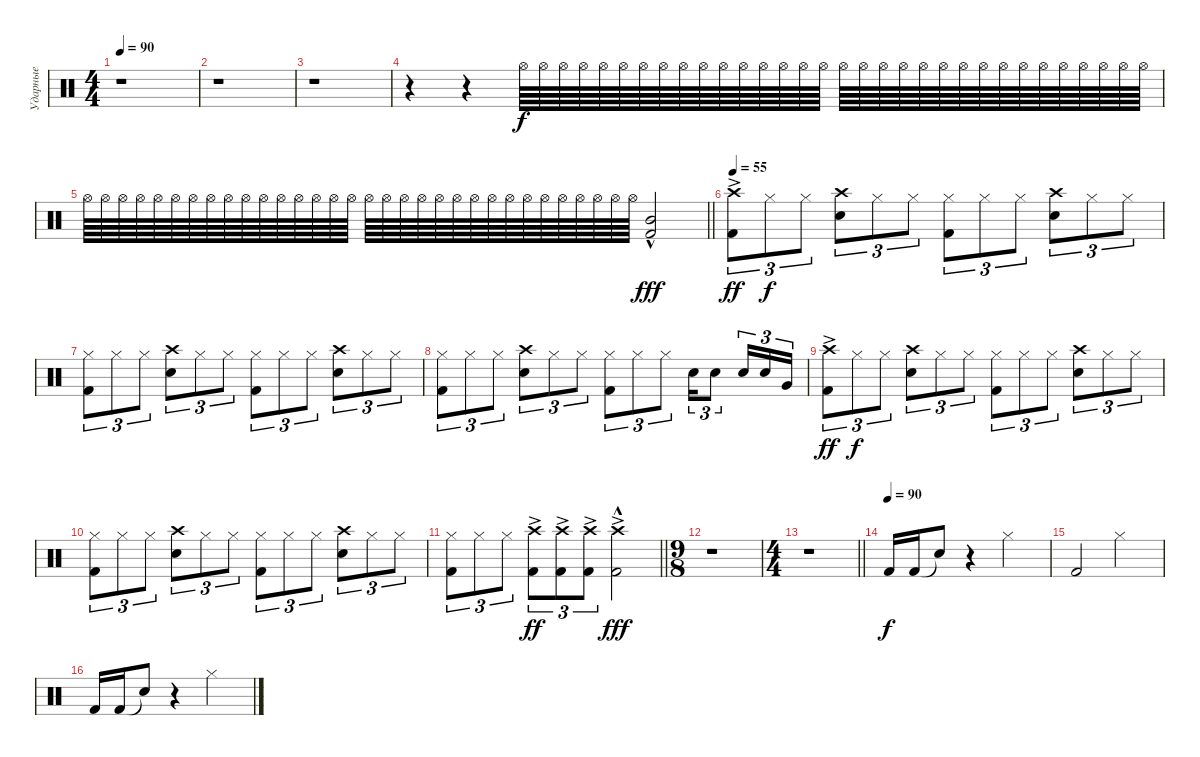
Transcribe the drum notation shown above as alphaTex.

\track ("Ударные" "Ударные") {instrument percussion}
\staff {score}
\articulation defaults
\ts (4 4)
\tempo 90
\clef neutral
\ks c
r.1{dy f} |
r.1 |
r.1 |
r.4{volume 0} r.4{volume 13} "Hi-Hat (open)".64 "Hi-Hat (open)".64 "Hi-Hat (open)".64 "Hi-Hat (open)".64 "Hi-Hat (open)".64 "Hi-Hat (open)".64 "Hi-Hat (open)".64 "Hi-Hat (open)".64 "Hi-Hat (open)".64 "Hi-Hat (open)".64 "Hi-Hat (open)".64 "Hi-Hat (open)".64 "Hi-Hat (open)".64 "Hi-Hat (open)".64 "Hi-Hat (open)".64 "Hi-Hat (open)".64 "Hi-Hat (open)".64 "Hi-Hat (open)".64 "Hi-Hat (open)".64 "Hi-Hat (open)".64 "Hi-Hat (open)".64 "Hi-Hat (open)".64 "Hi-Hat (open)".64 "Hi-Hat (open)".64 "Hi-Hat (open)".64 "Hi-Hat (open)".64 "Hi-Hat (open)".64 "Hi-Hat (open)".64 "Hi-Hat (open)".64 "Hi-Hat (open)".64 "Hi-Hat (open)".64 "Hi-Hat (open)".64 |
\barLineRight lightlight "Hi-Hat (open)".64 "Hi-Hat (open)".64 "Hi-Hat (open)".64 "Hi-Hat (open)".64 "Hi-Hat (open)".64 "Hi-Hat (open)".64 "Hi-Hat (open)".64 "Hi-Hat (open)".64 "Hi-Hat (open)".64 "Hi-Hat (open)".64 "Hi-Hat (open)".64 "Hi-Hat (open)".64 "Hi-Hat (open)".64 "Hi-Hat (open)".64 "Hi-Hat (open)".64 "Hi-Hat (open)".64 "Hi-Hat (open)".64 "Hi-Hat (open)".64 "Hi-Hat (open)".64 "Hi-Hat (open)".64 "Hi-Hat (open)".64 "Hi-Hat (open)".64 "Hi-Hat (open)".64 "Hi-Hat (open)".64 "Hi-Hat (open)".64 "Hi-Hat (open)".64 "Hi-Hat (open)".64 "Hi-Hat (open)".64 "Hi-Hat (open)".64 "Hi-Hat (open)".64 "Hi-Hat (open)".64 "Hi-Hat (open)".64
("Kick (hit) 2"{hac} "Mid Tom (hit)"{hac}).2{dy fff} |
\tempo 55
("Kick (hit) 2" "Crash high (hit)"{ac}).8{tu (3 2) dy ff} "Hi-Hat (closed)".8{tu (3 2) dy f} "Hi-Hat (closed)".8{tu (3 2)} ("Snare (hit) 2" "Crash high (hit)").8{tu (3 2)} "Hi-Hat (closed)".8{tu (3 2)} "Hi-Hat (closed)".8{tu (3 2)} ("Kick (hit) 2" "Hi-Hat (closed)").8{tu (3 2)} "Hi-Hat (closed)".8{tu (3 2)} "Hi-Hat (closed)".8{tu (3 2)} ("Snare (hit) 2" "Crash high (hit)").8{tu (3 2)} "Hi-Hat (closed)".8{tu (3 2)} "Hi-Hat (closed)".8{tu (3 2)} |
("Kick (hit) 2" "Hi-Hat (closed)").8{tu (3 2)} "Hi-Hat (closed)".8{tu (3 2)} "Hi-Hat (closed)".8{tu (3 2)} ("Snare (hit) 2" "Crash high (hit)").8{tu (3 2)} "Hi-Hat (closed)".8{tu (3 2)} "Hi-Hat (closed)".8{tu (3 2)} ("Kick (hit) 2" "Hi-Hat (closed)").8{tu (3 2)} "Hi-Hat (closed)".8{tu (3 2)} "Hi-Hat (closed)".8{tu (3 2)} ("Snare (hit) 2" "Crash high (hit)").8{tu (3 2)} "Hi-Hat (closed)".8{tu (3 2)} "Hi-Hat (closed)".8{tu (3 2)} |
("Kick (hit) 2" "Hi-Hat (closed)").8{tu (3 2)} "Hi-Hat (closed)".8{tu (3 2)} "Hi-Hat (closed)".8{tu (3 2)} ("Snare (hit) 2" "Crash high (hit)").8{tu (3 2)} "Hi-Hat (closed)".8{tu (3 2)} "Hi-Hat (closed)".8{tu (3 2)} ("Kick (hit) 2" "Hi-Hat (closed)").8{tu (3 2)} "Hi-Hat (closed)".8{tu (3 2)} "Hi-Hat (closed)".8{tu (3 2)} "Snare (hit) 2".16{tu (3 2)} "Snare (hit) 2".8{tu (3 2)} "Snare (hit) 2".16{tu (3 2)} "Snare (hit) 2".16{tu (3 2)} "Very Low Tom (hit)".16{tu (3 2)} |
("Kick (hit) 2" "Crash high (hit)"{ac}).8{tu (3 2) dy ff} "Hi-Hat (closed)".8{tu (3 2) dy f} "Hi-Hat (closed)".8{tu (3 2)} ("Snare (hit) 2" "Crash high (hit)").8{tu (3 2)} "Hi-Hat (closed)".8{tu (3 2)} "Hi-Hat (closed)".8{tu (3 2)} ("Kick (hit) 2" "Hi-Hat (closed)").8{tu (3 2)} "Hi-Hat (closed)".8{tu (3 2)} "Hi-Hat (closed)".8{tu (3 2)} ("Snare (hit) 2" "Crash high (hit)").8{tu (3 2)} "Hi-Hat (closed)".8{tu (3 2)} "Hi-Hat (closed)".8{tu (3 2)} |
("Kick (hit) 2" "Hi-Hat (closed)").8{tu (3 2)} "Hi-Hat (closed)".8{tu (3 2)} "Hi-Hat (closed)".8{tu (3 2)} ("Snare (hit) 2" "Crash high (hit)").8{tu (3 2)} "Hi-Hat (closed)".8{tu (3 2)} "Hi-Hat (closed)".8{tu (3 2)} ("Kick (hit) 2" "Hi-Hat (closed)").8{tu (3 2)} "Hi-Hat (closed)".8{tu (3 2)} "Hi-Hat (closed)".8{tu (3 2)} ("Snare (hit) 2" "Crash high (hit)").8{tu (3 2)} "Hi-Hat (closed)".8{tu (3 2)} "Hi-Hat (closed)".8{tu (3 2)} |
\barLineRight lightlight
("Kick (hit) 2" "Hi-Hat (closed)").8{tu (3 2)} "Hi-Hat (closed)".8{tu (3 2)} "Hi-Hat (closed)".8{tu (3 2)} ("Kick (hit) 2" "Crash high (hit)"{ac}).8{tu (3 2) dy ff} ("Kick (hit) 2"{ac} "Crash high (hit)"{ac}).8{tu (3 2)} ("Kick (hit) 2"{ac} "Crash high (hit)"{ac}).8{tu (3 2)} ("Kick (hit) 2"{ac} "Crash high (hit)"{hac}).2{dy fff} |
\ts (9 8)
r.1 |
\ts (4 4)
\barLineRight lightlight
r.1 |
\tempo (90)
"Kick (hit) 2".16{dy f} "Kick (hit) 2".16 "Snare (hit)"{t}.8 r.4 "Hi-Hat (closed)".2 |
"Kick (hit) 2".2 "Hi-Hat (closed)".2 |
"Kick (hit) 2".16 "Kick (hit) 2".16 "Snare (hit)"{t}.8 r.4 "Hi-Hat (closed)".2
